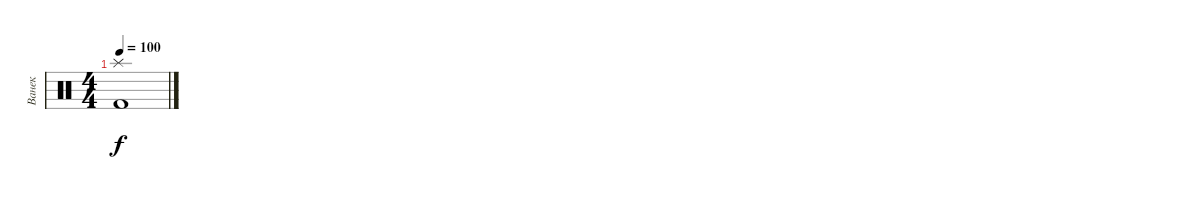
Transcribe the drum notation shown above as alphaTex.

\track ("Ванек" "Ванек") {instrument percussion}
\staff {score}
\articulation defaults
\ts (4 4)
\tempo 100
\clef neutral
\ks c
("Splash (hit)" "Kick (hit) 2").1{dy f}
